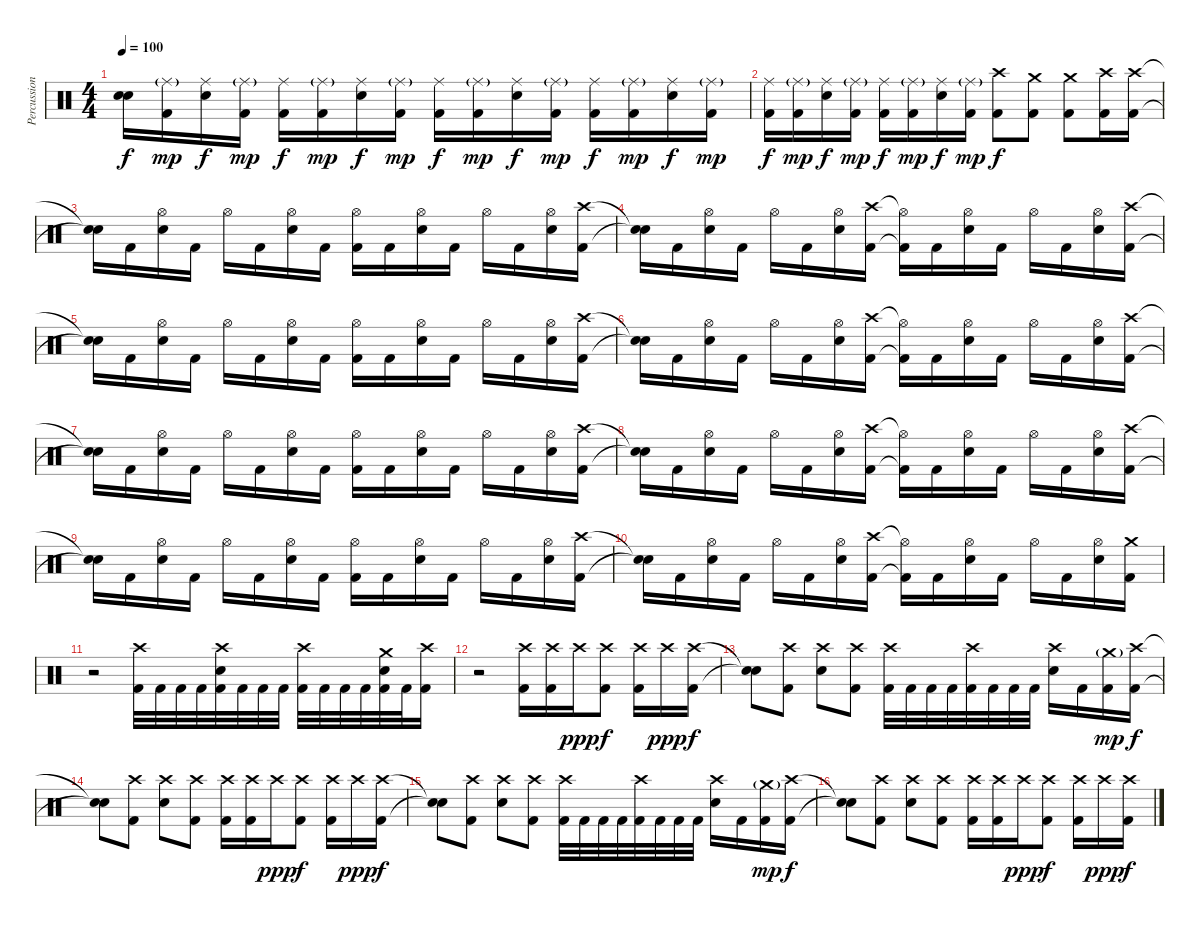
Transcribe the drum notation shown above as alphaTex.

\track ("Percussion" "Percussion") {instrument percussion}
\staff {score}
\articulation defaults
\ts (4 4)
\tempo 100
\clef neutral
\ks c
("Snare (hit)"{t} "Snare (hit)"{t}).16{dy f} ("Ride (middle)"{g} "Kick (hit) 2").16{dy mp} ("Ride (middle)" "Electric Snare (hit)").16{dy f} ("Ride (middle)"{g} "Kick (hit) 2").16{dy mp} ("Ride (middle)" "Kick (hit) 2").16{dy f} ("Ride (middle)"{g} "Kick (hit) 2").16{dy mp} ("Ride (middle)" "Electric Snare (hit)").16{dy f} ("Ride (middle)"{g} "Kick (hit) 2").16{dy mp} ("Ride (middle)" "Kick (hit) 2").16{dy f} ("Ride (middle)"{g} "Kick (hit) 2").16{dy mp} ("Ride (middle)" "Electric Snare (hit)").16{dy f} ("Ride (middle)"{g} "Kick (hit) 2").16{dy mp} ("Ride (middle)" "Kick (hit) 2").16{dy f} ("Ride (middle)"{g} "Kick (hit) 2").16{dy mp} ("Ride (middle)" "Electric Snare (hit)").16{dy f} ("Ride (middle)"{g} "Kick (hit) 2").16{dy mp} |
("Ride (middle)" "Kick (hit) 2").16{dy f} ("Ride (middle)"{g} "Kick (hit) 2").16{dy mp} ("Ride (middle)" "Electric Snare (hit)").16{dy f} ("Ride (middle)"{g} "Kick (hit) 2").16{dy mp} ("Ride (middle)" "Kick (hit) 2").16{dy f} ("Ride (middle)"{g} "Kick (hit) 2").16{dy mp} ("Ride (middle)" "Electric Snare (hit)").16{dy f} ("Ride (middle)"{g} "Kick (hit) 2").16{dy mp} ("Crash high (hit)" "Kick (hit) 2").8{dy f} ("Crash medium (hit)" "Kick (hit) 2").8 ("Crash medium (hit)" "Kick (hit) 2").8 ("Crash high (hit)" "Kick (hit) 2").16 ("Crash high (hit)" "Kick (hit) 2").16 |
("Snare (hit)"{t} "Snare (hit)"{t}).16 "Kick (hit) 2".16 ("Hi-Hat (open)" "Electric Snare (hit)").16 "Kick (hit) 2".16 "Hi-Hat (open)".16 "Kick (hit) 2".16 ("Hi-Hat (open)" "Electric Snare (hit)").16 "Kick (hit) 2".16 ("Hi-Hat (open)" "Kick (hit) 2").16 "Kick (hit) 2".16 ("Hi-Hat (open)" "Electric Snare (hit)").16 "Kick (hit) 2".16 "Hi-Hat (open)".16 "Kick (hit) 2".16 ("Hi-Hat (open)" "Electric Snare (hit)").16 ("Crash high (hit)" "Kick (hit) 2").16 |
("Snare (hit)"{t} "Snare (hit)"{t}).16 "Kick (hit) 2".16 ("Hi-Hat (open)" "Electric Snare (hit)").16 "Kick (hit) 2".16 "Hi-Hat (open)".16 "Kick (hit) 2".16 ("Hi-Hat (open)" "Electric Snare (hit)").16 ("Crash high (hit)" "Kick (hit) 2").16 ("Hi-Hat (open)"{t} "Kick (hit) 2"{t}).16 "Kick (hit) 2".16 ("Hi-Hat (open)" "Electric Snare (hit)").16 "Kick (hit) 2".16 "Hi-Hat (open)".16 "Kick (hit) 2".16 ("Hi-Hat (open)" "Electric Snare (hit)").16 ("Crash high (hit)" "Kick (hit) 2").16 |
("Snare (hit)"{t} "Snare (hit)"{t}).16 "Kick (hit) 2".16 ("Hi-Hat (open)" "Electric Snare (hit)").16 "Kick (hit) 2".16 "Hi-Hat (open)".16 "Kick (hit) 2".16 ("Hi-Hat (open)" "Electric Snare (hit)").16 "Kick (hit) 2".16 ("Hi-Hat (open)" "Kick (hit) 2").16 "Kick (hit) 2".16 ("Hi-Hat (open)" "Electric Snare (hit)").16 "Kick (hit) 2".16 "Hi-Hat (open)".16 "Kick (hit) 2".16 ("Hi-Hat (open)" "Electric Snare (hit)").16 ("Crash high (hit)" "Kick (hit) 2").16 |
("Snare (hit)"{t} "Snare (hit)"{t}).16 "Kick (hit) 2".16 ("Hi-Hat (open)" "Electric Snare (hit)").16 "Kick (hit) 2".16 "Hi-Hat (open)".16 "Kick (hit) 2".16 ("Hi-Hat (open)" "Electric Snare (hit)").16 ("Crash high (hit)" "Kick (hit) 2").16 ("Hi-Hat (open)"{t} "Kick (hit) 2"{t}).16 "Kick (hit) 2".16 ("Hi-Hat (open)" "Electric Snare (hit)").16 "Kick (hit) 2".16 "Hi-Hat (open)".16 "Kick (hit) 2".16 ("Hi-Hat (open)" "Electric Snare (hit)").16 ("Crash high (hit)" "Kick (hit) 2").16 |
("Snare (hit)"{t} "Snare (hit)"{t}).16 "Kick (hit) 2".16 ("Hi-Hat (open)" "Electric Snare (hit)").16 "Kick (hit) 2".16 "Hi-Hat (open)".16 "Kick (hit) 2".16 ("Hi-Hat (open)" "Electric Snare (hit)").16 "Kick (hit) 2".16 ("Hi-Hat (open)" "Kick (hit) 2").16 "Kick (hit) 2".16 ("Hi-Hat (open)" "Electric Snare (hit)").16 "Kick (hit) 2".16 "Hi-Hat (open)".16 "Kick (hit) 2".16 ("Hi-Hat (open)" "Electric Snare (hit)").16 ("Crash high (hit)" "Kick (hit) 2").16 |
("Snare (hit)"{t} "Snare (hit)"{t}).16 "Kick (hit) 2".16 ("Hi-Hat (open)" "Electric Snare (hit)").16 "Kick (hit) 2".16 "Hi-Hat (open)".16 "Kick (hit) 2".16 ("Hi-Hat (open)" "Electric Snare (hit)").16 ("Crash high (hit)" "Kick (hit) 2").16 ("Hi-Hat (open)"{t} "Kick (hit) 2"{t}).16 "Kick (hit) 2".16 ("Hi-Hat (open)" "Electric Snare (hit)").16 "Kick (hit) 2".16 "Hi-Hat (open)".16 "Kick (hit) 2".16 ("Hi-Hat (open)" "Electric Snare (hit)").16 ("Crash high (hit)" "Kick (hit) 2").16 |
("Snare (hit)"{t} "Snare (hit)"{t}).16 "Kick (hit) 2".16 ("Hi-Hat (open)" "Electric Snare (hit)").16 "Kick (hit) 2".16 "Hi-Hat (open)".16 "Kick (hit) 2".16 ("Hi-Hat (open)" "Electric Snare (hit)").16 "Kick (hit) 2".16 ("Hi-Hat (open)" "Kick (hit) 2").16 "Kick (hit) 2".16 ("Hi-Hat (open)" "Electric Snare (hit)").16 "Kick (hit) 2".16 "Hi-Hat (open)".16 "Kick (hit) 2".16 ("Hi-Hat (open)" "Electric Snare (hit)").16 ("Crash high (hit)" "Kick (hit) 2").16 |
("Snare (hit)"{t} "Snare (hit)"{t}).16 "Kick (hit) 2".16 ("Hi-Hat (open)" "Electric Snare (hit)").16 "Kick (hit) 2".16 "Hi-Hat (open)".16 "Kick (hit) 2".16 ("Hi-Hat (open)" "Electric Snare (hit)").16 ("Crash high (hit)" "Kick (hit) 2").16 ("Hi-Hat (open)"{t} "Kick (hit) 2"{t}).16 "Kick (hit) 2".16 ("Hi-Hat (open)" "Electric Snare (hit)").16 "Kick (hit) 2".16 "Hi-Hat (open)".16 "Kick (hit) 2".16 ("Hi-Hat (open)" "Electric Snare (hit)").16 ("Crash medium (hit)" "Kick (hit) 2").16 |
r.2 ("Crash high (hit)" "Kick (hit) 2").32 "Kick (hit) 2".32 "Kick (hit) 2".32 "Kick (hit) 2".32 ("Crash high (hit)" "Electric Snare (hit)" "Kick (hit) 2").32 "Kick (hit) 2".32 "Kick (hit) 2".32 "Kick (hit) 2".32 ("Crash high (hit)" "Kick (hit) 2").32 "Kick (hit) 2".32 "Kick (hit) 2".32 "Kick (hit) 2".32 ("Crash medium (hit)" "Electric Snare (hit)" "Kick (hit) 2").32 "Kick (hit) 2".32 ("Crash high (hit)" "Kick (hit) 2").16 |
r.2 ("Crash high (hit)" "Kick (hit) 2").16 ("Crash high (hit)" "Kick (hit) 2").16 "Crash high (hit)".16{dy ppp} ("Crash high (hit)" "Kick (hit) 2").8{dy f} ("Crash high (hit)" "Kick (hit) 2").16 "Crash high (hit)".16{dy ppp} ("Crash high (hit)" "Kick (hit) 2").16{dy f} |
("Snare (hit)"{t} "Snare (hit)"{t}).8 ("Crash high (hit)" "Kick (hit) 2").8 ("Crash high (hit)" "Electric Snare (hit)").8 ("Crash high (hit)" "Kick (hit) 2").8 ("Crash high (hit)" "Kick (hit) 2").32 "Kick (hit) 2".32 "Kick (hit) 2".32 "Kick (hit) 2".32 ("Crash high (hit)" "Kick (hit) 2").32 "Kick (hit) 2".32 "Kick (hit) 2".32 "Kick (hit) 2".32 ("Crash high (hit)" "Electric Snare (hit)").16 "Kick (hit) 2".16 ("Crash medium (hit)"{g} "Kick (hit) 2").16{dy mp} ("Crash high (hit)" "Kick (hit) 2").16{dy f} |
("Snare (hit)"{t} "Snare (hit)"{t}).8 ("Crash high (hit)" "Kick (hit) 2").8 ("Crash high (hit)" "Electric Snare (hit)").8 ("Crash high (hit)" "Kick (hit) 2").8 ("Crash high (hit)" "Kick (hit) 2").16 ("Crash high (hit)" "Kick (hit) 2").16 "Crash high (hit)".16{dy ppp} ("Crash high (hit)" "Kick (hit) 2").8{dy f} ("Crash high (hit)" "Kick (hit) 2").16 "Crash high (hit)".16{dy ppp} ("Crash high (hit)" "Kick (hit) 2").16{dy f} |
("Snare (hit)"{t} "Snare (hit)"{t}).8 ("Crash high (hit)" "Kick (hit) 2").8 ("Crash high (hit)" "Electric Snare (hit)").8 ("Crash high (hit)" "Kick (hit) 2").8 ("Crash high (hit)" "Kick (hit) 2").32 "Kick (hit) 2".32 "Kick (hit) 2".32 "Kick (hit) 2".32 ("Crash high (hit)" "Kick (hit) 2").32 "Kick (hit) 2".32 "Kick (hit) 2".32 "Kick (hit) 2".32 ("Crash high (hit)" "Electric Snare (hit)").16 "Kick (hit) 2".16 ("Crash medium (hit)"{g} "Kick (hit) 2").16{dy mp} ("Crash high (hit)" "Kick (hit) 2").16{dy f} |
("Snare (hit)"{t} "Snare (hit)"{t}).8 ("Crash high (hit)" "Kick (hit) 2").8 ("Crash high (hit)" "Electric Snare (hit)").8 ("Crash high (hit)" "Kick (hit) 2").8 ("Crash high (hit)" "Kick (hit) 2").16 ("Crash high (hit)" "Kick (hit) 2").16 "Crash high (hit)".16{dy ppp} ("Crash high (hit)" "Kick (hit) 2").8{dy f} ("Crash high (hit)" "Kick (hit) 2").16 "Crash high (hit)".16{dy ppp} ("Crash high (hit)" "Kick (hit) 2").16{dy f}
